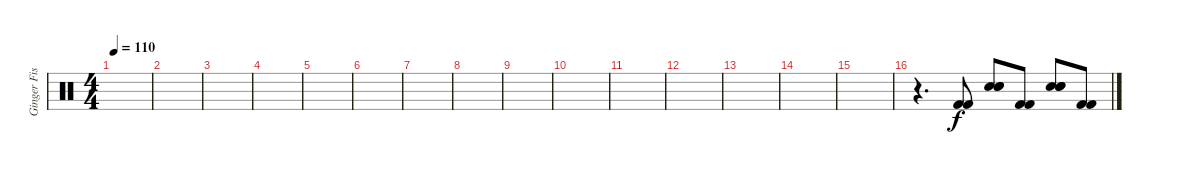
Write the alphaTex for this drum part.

\track ("Ginger Fish" "Ginger Fis") {instrument percussion}
\staff {score}
\articulation defaults
\ts (4 4)
\tempo 110
\clef neutral
\ks c
|
|
|
|
|
|
|
|
|
|
|
|
|
|
|
r.4{d} ("Kick (hit) 2" "Kick (hit) 2").8 ("Electric Snare (hit)" "Electric Snare (hit)" "Electric Snare (hit)").8 ("Kick (hit) 2" "Kick (hit) 2").8 ("Electric Snare (hit)" "Electric Snare (hit)" "Electric Snare (hit)").8 ("Kick (hit) 2" "Kick (hit) 2").8
